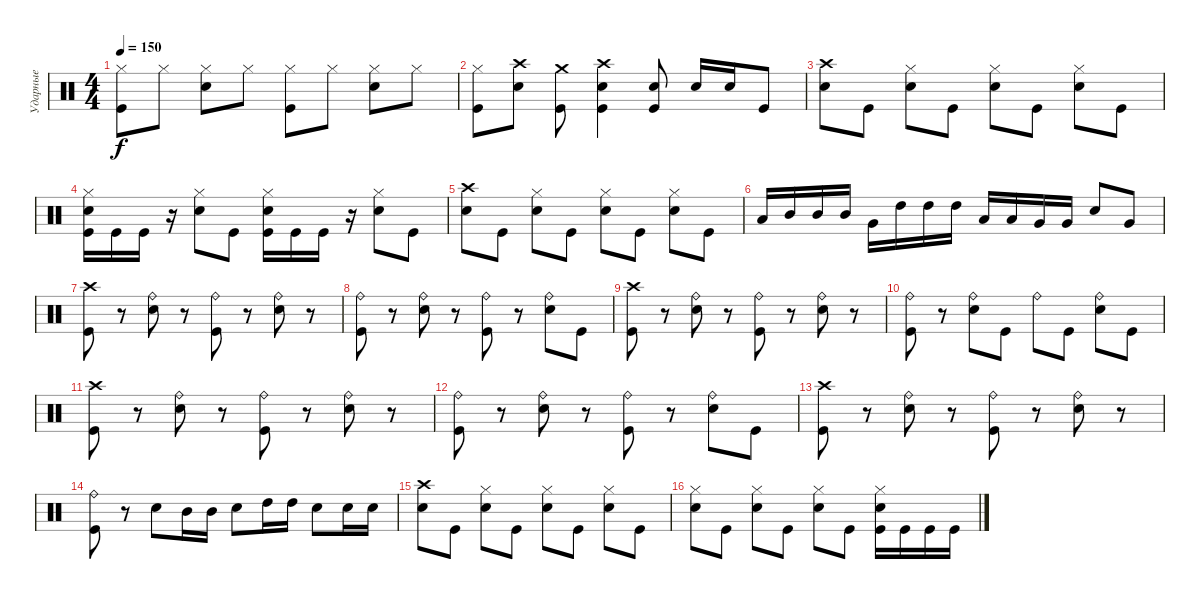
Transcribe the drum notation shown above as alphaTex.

\track ("Ударные" "Ударные") {instrument percussion}
\staff {score}
\articulation defaults
\ts (4 4)
\tempo 150
\clef neutral
\ks c
("Hi-Hat (closed)" "Kick (hit)").8{dy f} "Hi-Hat (closed)".8 ("Hi-Hat (closed)" "Electric Snare (hit)").8 "Hi-Hat (closed)".8 ("Hi-Hat (closed)" "Kick (hit)").8 "Hi-Hat (closed)".8 ("Hi-Hat (closed)" "Electric Snare (hit)").8 "Hi-Hat (closed)".8 |
("Hi-Hat (closed)" "Kick (hit)").8 ("Crash high (hit)" "Electric Snare (hit)").8 ("Crash medium (hit)" "Kick (hit)").8 ("Crash high (hit)" "Electric Snare (hit)" "Kick (hit)").4 ("Electric Snare (hit)" "Kick (hit)").8 "Electric Snare (hit)".16 "Electric Snare (hit)".16 "Kick (hit)".8 |
("Crash high (hit)" "Electric Snare (hit)").8 "Kick (hit)".8 ("Hi-Hat (closed)" "Electric Snare (hit)").8 "Kick (hit)".8 ("Hi-Hat (closed)" "Electric Snare (hit)").8 "Kick (hit)".8 ("Hi-Hat (closed)" "Electric Snare (hit)").8 "Kick (hit)".8 |
("Hi-Hat (closed)" "Electric Snare (hit)" "Kick (hit)").16 "Kick (hit)".16 "Kick (hit)".16 r.16 ("Hi-Hat (closed)" "Electric Snare (hit)").8 "Kick (hit)".8 ("Hi-Hat (closed)" "Electric Snare (hit)" "Kick (hit)").16 "Kick (hit)".16 "Kick (hit)".16 r.16 ("Hi-Hat (closed)" "Electric Snare (hit)").8 "Kick (hit)".8 |
("Crash high (hit)" "Electric Snare (hit)").8 "Kick (hit)".8 ("Hi-Hat (closed)" "Electric Snare (hit)").8 "Kick (hit)".8 ("Hi-Hat (closed)" "Electric Snare (hit)").8 "Kick (hit)".8 ("Hi-Hat (closed)" "Electric Snare (hit)").8 "Kick (hit)".8 |
"Low Tom (hit)".16 "Mid Tom (hit)".16 "Mid Tom (hit)".16 "Mid Tom (hit)".16 "Very Low Tom (hit)".16 "High Tom (hit)".16 "High Tom (hit)".16 "High Tom (hit)".16 "Low Tom (hit)".16 "Low Tom (hit)".16 "Very Low Tom (hit)".16 "Very Low Tom (hit)".16 "Electric Snare (hit)".8 "Very Low Tom (hit)".8 |
("Crash high (hit)" "Kick (hit)").8 r.8 ("Ride (bell)" "Electric Snare (hit)").8 r.8 ("Ride (bell)" "Kick (hit)").8 r.8 ("Ride (bell)" "Electric Snare (hit)").8 r.8 |
("Ride (bell)" "Kick (hit)").8 r.8 ("Ride (bell)" "Electric Snare (hit)").8 r.8 ("Ride (bell)" "Kick (hit)").8 r.8 ("Ride (bell)" "Electric Snare (hit)").8 "Kick (hit)".8 |
("Crash high (hit)" "Kick (hit)").8 r.8 ("Ride (bell)" "Electric Snare (hit)").8 r.8 ("Ride (bell)" "Kick (hit)").8 r.8 ("Ride (bell)" "Electric Snare (hit)").8 r.8 |
("Ride (bell)" "Kick (hit)").8 r.8 ("Ride (bell)" "Electric Snare (hit)").8 "Kick (hit)".8 "Ride (bell)".8 "Kick (hit)".8 ("Ride (bell)" "Electric Snare (hit)").8 "Kick (hit)".8 |
("Crash high (hit)" "Kick (hit)").8 r.8 ("Ride (bell)" "Electric Snare (hit)").8 r.8 ("Ride (bell)" "Kick (hit)").8 r.8 ("Ride (bell)" "Electric Snare (hit)").8 r.8 |
("Ride (bell)" "Kick (hit)").8 r.8 ("Ride (bell)" "Electric Snare (hit)").8 r.8 ("Ride (bell)" "Kick (hit)").8 r.8 ("Ride (bell)" "Electric Snare (hit)").8 "Kick (hit)".8 |
("Crash high (hit)" "Kick (hit)").8 r.8 ("Ride (bell)" "Electric Snare (hit)").8 r.8 ("Ride (bell)" "Kick (hit)").8 r.8 ("Ride (bell)" "Electric Snare (hit)").8 r.8 |
("Ride (bell)" "Kick (hit)").8 r.8 "Electric Snare (hit)".8 "Mid Tom (hit)".16 "Mid Tom (hit)".16 "Electric Snare (hit)".8 "High Tom (hit)".16 "High Tom (hit)".16 "Electric Snare (hit)".8 "Electric Snare (hit)".16 "Electric Snare (hit)".16 |
("Crash high (hit)" "Electric Snare (hit)").8 "Kick (hit)".8 ("Hi-Hat (closed)" "Electric Snare (hit)").8 "Kick (hit)".8 ("Hi-Hat (closed)" "Electric Snare (hit)").8 "Kick (hit)".8 ("Hi-Hat (closed)" "Electric Snare (hit)").8 "Kick (hit)".8 |
("Hi-Hat (closed)" "Electric Snare (hit)").8 "Kick (hit)".8 ("Hi-Hat (closed)" "Electric Snare (hit)").8 "Kick (hit)".8 ("Hi-Hat (closed)" "Electric Snare (hit)").8 "Kick (hit)".8 ("Hi-Hat (closed)" "Electric Snare (hit)" "Kick (hit)").16 "Kick (hit)".16 "Kick (hit)".16 "Kick (hit)".16
